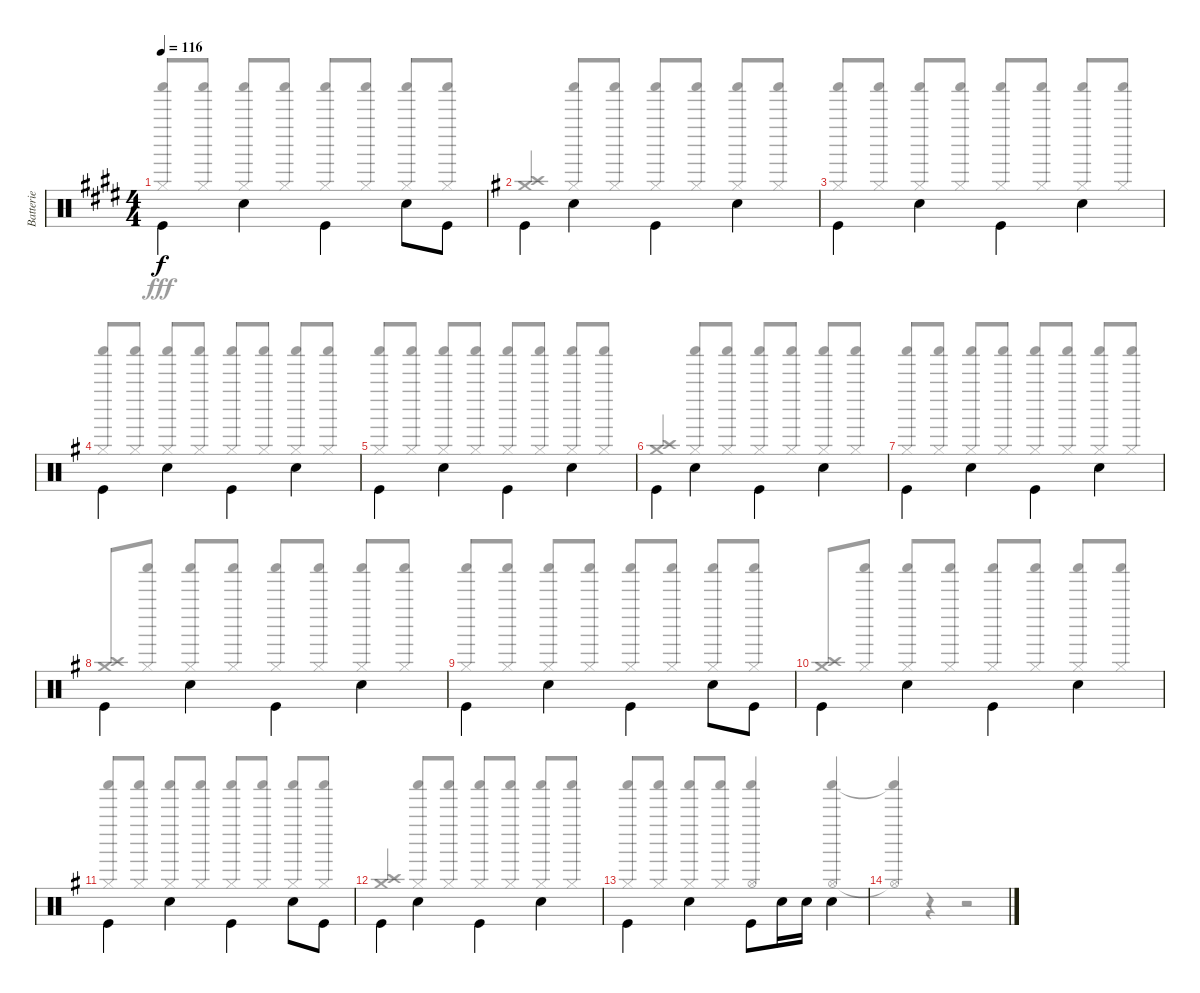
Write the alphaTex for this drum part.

\track ("Batterie" "Batterie") {instrument percussion}
\staff {score}
\articulation defaults
\voice
\ts (4 4)
\tempo 116
\clef neutral
\ks e "Kick (hit)".4{dy f beam Down} "Snare (hit) 2".4{beam Down} "Kick (hit)".4{beam Down} "Snare (hit) 2".8{beam Down} "Kick (hit)".8{beam Down}
|
\ks g "Kick (hit)".4{beam Down} "Snare (hit) 2".4{beam Down} "Kick (hit)".4{beam Down} "Snare (hit) 2".4{beam Down}
|
"Kick (hit)".4{beam Down} "Snare (hit) 2".4{beam Down} "Kick (hit)".4{beam Down} "Snare (hit) 2".4{beam Down} |
"Kick (hit)".4{beam Down} "Snare (hit) 2".4{beam Down} "Kick (hit)".4{beam Down} "Snare (hit) 2".4{beam Down} |
"Kick (hit)".4{beam Down} "Snare (hit) 2".4{beam Down} "Kick (hit)".4{beam Down} "Snare (hit) 2".4{beam Down} |
"Kick (hit)".4{beam Down} "Snare (hit) 2".4{beam Down} "Kick (hit)".4{beam Down} "Snare (hit) 2".4{beam Down} |
"Kick (hit)".4{beam Down} "Snare (hit) 2".4{beam Down} "Kick (hit)".4{beam Down} "Snare (hit) 2".4{beam Down} |
"Kick (hit)".4{beam Down} "Snare (hit) 2".4{beam Down} "Kick (hit)".4{beam Down} "Snare (hit) 2".4{beam Down} |
"Kick (hit)".4{beam Down} "Snare (hit) 2".4{beam Down} "Kick (hit)".4{beam Down} "Snare (hit) 2".8{beam Down} "Kick (hit)".8{beam Down} |
"Kick (hit)".4{beam Down} "Snare (hit) 2".4{beam Down} "Kick (hit)".4{beam Down} "Snare (hit) 2".4{beam Down} |
"Kick (hit)".4{beam Down} "Snare (hit) 2".4{beam Down} "Kick (hit)".4{beam Down} "Snare (hit) 2".8{beam Down} "Kick (hit)".8{beam Down} |
"Kick (hit)".4{beam Down} "Snare (hit) 2".4{beam Down} "Kick (hit)".4{beam Down} "Snare (hit) 2".4{beam Down} |
"Kick (hit)".4{beam Down} "Snare (hit) 2".4{beam Down} "Kick (hit)".8{beam Down} "Snare (hit) 2".16{beam Down} "Snare (hit) 2".16{beam Down} "Snare (hit) 2".4{beam Down} |
\voice
\clef neutral
\ottava regular
\simile none
\ks e
("Shaker (hit)" "Hi-Hat (closed)").8{dy fff beam Up} ("Shaker (hit)" "Hi-Hat (closed)").8{beam Up} ("Shaker (hit)" "Hi-Hat (closed)").8{beam Up} ("Shaker (hit)" "Hi-Hat (closed)").8{beam Up} ("Shaker (hit)" "Hi-Hat (closed)").8{beam Up} ("Shaker (hit)" "Hi-Hat (closed)").8{beam Up} ("Shaker (hit)" "Hi-Hat (closed)").8{beam Up} ("Shaker (hit)" "Hi-Hat (closed)").8{beam Up} |
\ks g
("Crash medium (hit)" "Crash high (hit)").4{beam Up} ("Shaker (hit)" "Hi-Hat (closed)").8{beam Up} ("Shaker (hit)" "Hi-Hat (closed)").8{beam Up} ("Shaker (hit)" "Hi-Hat (closed)").8{beam Up} ("Shaker (hit)" "Hi-Hat (closed)").8{beam Up} ("Shaker (hit)" "Hi-Hat (closed)").8{beam Up} ("Shaker (hit)" "Hi-Hat (closed)").8{beam Up} |
("Shaker (hit)" "Hi-Hat (closed)").8{beam Up} ("Shaker (hit)" "Hi-Hat (closed)").8{beam Up} ("Shaker (hit)" "Hi-Hat (closed)").8{beam Up} ("Shaker (hit)" "Hi-Hat (closed)").8{beam Up} ("Shaker (hit)" "Hi-Hat (closed)").8{beam Up} ("Shaker (hit)" "Hi-Hat (closed)").8{beam Up} ("Shaker (hit)" "Hi-Hat (closed)").8{beam Up} ("Shaker (hit)" "Hi-Hat (closed)").8{beam Up} |
("Shaker (hit)" "Hi-Hat (closed)").8{beam Up} ("Shaker (hit)" "Hi-Hat (closed)").8{beam Up} ("Shaker (hit)" "Hi-Hat (closed)").8{beam Up} ("Shaker (hit)" "Hi-Hat (closed)").8{beam Up} ("Shaker (hit)" "Hi-Hat (closed)").8{beam Up} ("Shaker (hit)" "Hi-Hat (closed)").8{beam Up} ("Shaker (hit)" "Hi-Hat (closed)").8{beam Up} ("Shaker (hit)" "Hi-Hat (closed)").8{beam Up} |
("Shaker (hit)" "Hi-Hat (closed)").8{beam Up} ("Shaker (hit)" "Hi-Hat (closed)").8{beam Up} ("Shaker (hit)" "Hi-Hat (closed)").8{beam Up} ("Shaker (hit)" "Hi-Hat (closed)").8{beam Up} ("Shaker (hit)" "Hi-Hat (closed)").8{beam Up} ("Shaker (hit)" "Hi-Hat (closed)").8{beam Up} ("Shaker (hit)" "Hi-Hat (closed)").8{beam Up} ("Shaker (hit)" "Hi-Hat (closed)").8{beam Up} |
("Crash medium (hit)" "Crash high (hit)").4{beam Up} ("Shaker (hit)" "Hi-Hat (closed)").8{beam Up} ("Shaker (hit)" "Hi-Hat (closed)").8{beam Up} ("Shaker (hit)" "Hi-Hat (closed)").8{beam Up} ("Shaker (hit)" "Hi-Hat (closed)").8{beam Up} ("Shaker (hit)" "Hi-Hat (closed)").8{beam Up} ("Shaker (hit)" "Hi-Hat (closed)").8{beam Up} |
("Shaker (hit)" "Hi-Hat (closed)").8{beam Up} ("Shaker (hit)" "Hi-Hat (closed)").8{beam Up} ("Shaker (hit)" "Hi-Hat (closed)").8{beam Up} ("Shaker (hit)" "Hi-Hat (closed)").8{beam Up} ("Shaker (hit)" "Hi-Hat (closed)").8{beam Up} ("Shaker (hit)" "Hi-Hat (closed)").8{beam Up} ("Shaker (hit)" "Hi-Hat (closed)").8{beam Up} ("Shaker (hit)" "Hi-Hat (closed)").8{beam Up} |
("Crash medium (hit)" "Crash high (hit)").8{beam Up} ("Shaker (hit)" "Hi-Hat (closed)").8{beam Up} ("Shaker (hit)" "Hi-Hat (closed)").8{beam Up} ("Shaker (hit)" "Hi-Hat (closed)").8{beam Up} ("Shaker (hit)" "Hi-Hat (closed)").8{beam Up} ("Shaker (hit)" "Hi-Hat (closed)").8{beam Up} ("Shaker (hit)" "Hi-Hat (closed)").8{beam Up} ("Shaker (hit)" "Hi-Hat (closed)").8{beam Up} |
("Shaker (hit)" "Hi-Hat (closed)").8{beam Up} ("Shaker (hit)" "Hi-Hat (closed)").8{beam Up} ("Shaker (hit)" "Hi-Hat (closed)").8{beam Up} ("Shaker (hit)" "Hi-Hat (closed)").8{beam Up} ("Shaker (hit)" "Hi-Hat (closed)").8{beam Up} ("Shaker (hit)" "Hi-Hat (closed)").8{beam Up} ("Shaker (hit)" "Hi-Hat (closed)").8{beam Up} ("Shaker (hit)" "Hi-Hat (closed)").8{beam Up} |
("Crash medium (hit)" "Crash high (hit)").8{beam Up} ("Shaker (hit)" "Hi-Hat (closed)").8{beam Up} ("Shaker (hit)" "Hi-Hat (closed)").8{beam Up} ("Shaker (hit)" "Hi-Hat (closed)").8{beam Up} ("Shaker (hit)" "Hi-Hat (closed)").8{beam Up} ("Shaker (hit)" "Hi-Hat (closed)").8{beam Up} ("Shaker (hit)" "Hi-Hat (closed)").8{beam Up} ("Shaker (hit)" "Hi-Hat (closed)").8{beam Up} |
("Shaker (hit)" "Hi-Hat (closed)").8{beam Up} ("Shaker (hit)" "Hi-Hat (closed)").8{beam Up} ("Shaker (hit)" "Hi-Hat (closed)").8{beam Up} ("Shaker (hit)" "Hi-Hat (closed)").8{beam Up} ("Shaker (hit)" "Hi-Hat (closed)").8{beam Up} ("Shaker (hit)" "Hi-Hat (closed)").8{beam Up} ("Shaker (hit)" "Hi-Hat (closed)").8{beam Up} ("Shaker (hit)" "Hi-Hat (closed)").8{beam Up} |
("Crash medium (hit)" "Crash high (hit)").4{beam Up} ("Shaker (hit)" "Hi-Hat (closed)").8{beam Up} ("Shaker (hit)" "Hi-Hat (closed)").8{beam Up} ("Shaker (hit)" "Hi-Hat (closed)").8{beam Up} ("Shaker (hit)" "Hi-Hat (closed)").8{beam Up} ("Shaker (hit)" "Hi-Hat (closed)").8{beam Up} ("Shaker (hit)" "Hi-Hat (closed)").8{beam Up} |
("Shaker (hit)" "Hi-Hat (closed)").8{beam Up} ("Shaker (hit)" "Hi-Hat (closed)").8{beam Up} ("Shaker (hit)" "Hi-Hat (closed)").8{beam Up} ("Shaker (hit)" "Hi-Hat (closed)").8{beam Up} ("Shaker (hit)" "Hi-Hat (open)").4{beam Up} ("Shaker (hit)" "Hi-Hat (open)").4{beam Up} |
("Shaker (hit)"{t} "Hi-Hat (open)"{t}).4{beam Up} r.4 r.2
